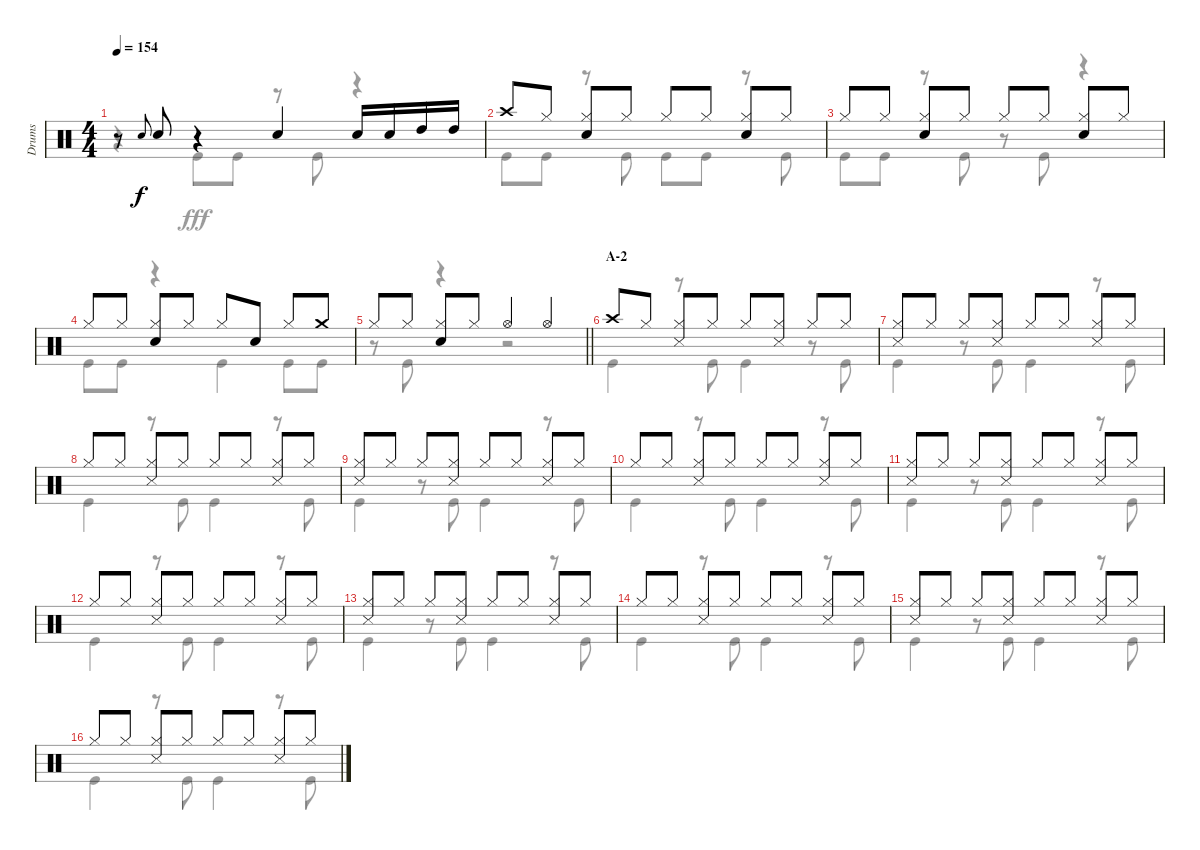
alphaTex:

\track ("Drums" "Drums") {instrument percussion}
\staff {score}
\articulation defaults
\voice
\ts (4 4)
\tempo 154
\clef neutral
\ks c
r.8{dy f} "Snare (hit) 2".8{gr onbeat} "Snare (hit) 2".8 r.4 "Snare (hit) 2".4 "Snare (hit) 2".16 "Snare (hit) 2".16 "High Tom (hit)".16 "High Tom (hit)".16 |
"Crash high (hit)".8 "Hi-Hat (closed)".8 ("Hi-Hat (closed)" "Snare (hit) 2").8 "Hi-Hat (closed)".8 "Hi-Hat (closed)".8 "Hi-Hat (closed)".8 ("Hi-Hat (closed)" "Snare (hit) 2").8 "Hi-Hat (closed)".8 |
"Hi-Hat (closed)".8 "Hi-Hat (closed)".8 ("Hi-Hat (closed)" "Snare (hit) 2").8 "Hi-Hat (closed)".8 "Hi-Hat (closed)".8 "Hi-Hat (closed)".8 ("Hi-Hat (closed)" "Snare (hit) 2").8 "Hi-Hat (closed)".8 |
"Hi-Hat (closed)".8 "Hi-Hat (closed)".8 ("Hi-Hat (closed)" "Snare (hit) 2").8 "Hi-Hat (closed)".8 "Hi-Hat (closed)".8 "Snare (hit) 2".8 "Hi-Hat (closed)".8 "Crash medium (hit)".8 |
\barLineRight lightlight "Hi-Hat (closed)".8 "Hi-Hat (closed)".8
("Hi-Hat (closed)" "Snare (hit) 2").8 "Hi-Hat (closed)".8 "Hi-Hat (open)".4 "Hi-Hat (open)".4 |
\section ("" "A-2")
"Crash high (hit)".8 "Hi-Hat (closed)".8 ("Hi-Hat (closed)" "Snare (side stick) 3").8 "Hi-Hat (closed)".8 "Hi-Hat (closed)".8 ("Hi-Hat (closed)" "Snare (side stick) 3").8 "Hi-Hat (closed)".8 "Hi-Hat (closed)".8 |
("Hi-Hat (closed)" "Snare (side stick) 3").8 "Hi-Hat (closed)".8 "Hi-Hat (closed)".8 ("Hi-Hat (closed)" "Snare (side stick) 3").8 "Hi-Hat (closed)".8 "Hi-Hat (closed)".8 ("Hi-Hat (closed)" "Snare (side stick) 3").8 "Hi-Hat (closed)".8 |
"Hi-Hat (closed)".8 "Hi-Hat (closed)".8 ("Hi-Hat (closed)" "Snare (side stick) 3").8 "Hi-Hat (closed)".8 "Hi-Hat (closed)".8 "Hi-Hat (closed)".8 ("Hi-Hat (closed)" "Snare (side stick) 3").8 "Hi-Hat (closed)".8 |
("Hi-Hat (closed)" "Snare (side stick) 3").8 "Hi-Hat (closed)".8 "Hi-Hat (closed)".8 ("Hi-Hat (closed)" "Snare (side stick) 3").8 "Hi-Hat (closed)".8 "Hi-Hat (closed)".8 ("Hi-Hat (closed)" "Snare (side stick) 3").8 "Hi-Hat (closed)".8 |
"Hi-Hat (closed)".8 "Hi-Hat (closed)".8 ("Hi-Hat (closed)" "Snare (side stick) 3").8 "Hi-Hat (closed)".8 "Hi-Hat (closed)".8 "Hi-Hat (closed)".8 ("Hi-Hat (closed)" "Snare (side stick) 3").8 "Hi-Hat (closed)".8 |
("Hi-Hat (closed)" "Snare (side stick) 3").8 "Hi-Hat (closed)".8 "Hi-Hat (closed)".8 ("Hi-Hat (closed)" "Snare (side stick) 3").8 "Hi-Hat (closed)".8 "Hi-Hat (closed)".8 ("Hi-Hat (closed)" "Snare (side stick) 3").8 "Hi-Hat (closed)".8 |
"Hi-Hat (closed)".8 "Hi-Hat (closed)".8 ("Hi-Hat (closed)" "Snare (side stick) 3").8 "Hi-Hat (closed)".8 "Hi-Hat (closed)".8 "Hi-Hat (closed)".8 ("Hi-Hat (closed)" "Snare (side stick) 3").8 "Hi-Hat (closed)".8 |
("Hi-Hat (closed)" "Snare (side stick) 3").8 "Hi-Hat (closed)".8 "Hi-Hat (closed)".8 ("Hi-Hat (closed)" "Snare (side stick) 3").8 "Hi-Hat (closed)".8 "Hi-Hat (closed)".8 ("Hi-Hat (closed)" "Snare (side stick) 3").8 "Hi-Hat (closed)".8 |
"Hi-Hat (closed)".8 "Hi-Hat (closed)".8 ("Hi-Hat (closed)" "Snare (side stick) 3").8 "Hi-Hat (closed)".8 "Hi-Hat (closed)".8 "Hi-Hat (closed)".8 ("Hi-Hat (closed)" "Snare (side stick) 3").8 "Hi-Hat (closed)".8 |
("Hi-Hat (closed)" "Snare (side stick) 3").8 "Hi-Hat (closed)".8 "Hi-Hat (closed)".8 ("Hi-Hat (closed)" "Snare (side stick) 3").8 "Hi-Hat (closed)".8 "Hi-Hat (closed)".8 ("Hi-Hat (closed)" "Snare (side stick) 3").8 "Hi-Hat (closed)".8 |
"Hi-Hat (closed)".8 "Hi-Hat (closed)".8 ("Hi-Hat (closed)" "Snare (side stick) 3").8 "Hi-Hat (closed)".8 "Hi-Hat (closed)".8 "Hi-Hat (closed)".8 ("Hi-Hat (closed)" "Snare (side stick) 3").8 "Hi-Hat (closed)".8
\voice
\clef neutral
\ottava regular
\simile none
\ks c
r.4{dy fff} "Kick (hit)".8 "Kick (hit)".8 r.8 "Kick (hit)".8 r.4 |
"Kick (hit)".8 "Kick (hit)".8 r.8 "Kick (hit)".8 "Kick (hit)".8 "Kick (hit)".8 r.8 "Kick (hit)".8 |
"Kick (hit)".8 "Kick (hit)".8 r.8 "Kick (hit)".8 r.8 "Kick (hit)".8 r.4 |
"Kick (hit)".8 "Kick (hit)".8 r.4 "Kick (hit)".4 "Kick (hit)".8 "Kick (hit)".8 |
\barLineRight lightlight
r.8 "Kick (hit)".8 r.4 r.2 |
"Kick (hit)".4 r.8 "Kick (hit)".8 "Kick (hit)".4 r.8 "Kick (hit)".8 |
"Kick (hit)".4 r.8 "Kick (hit)".8 "Kick (hit)".4 r.8 "Kick (hit)".8 |
"Kick (hit)".4 r.8 "Kick (hit)".8 "Kick (hit)".4 r.8 "Kick (hit)".8 |
"Kick (hit)".4 r.8 "Kick (hit)".8 "Kick (hit)".4 r.8 "Kick (hit)".8 |
"Kick (hit)".4 r.8 "Kick (hit)".8 "Kick (hit)".4 r.8 "Kick (hit)".8 |
"Kick (hit)".4 r.8 "Kick (hit)".8 "Kick (hit)".4 r.8 "Kick (hit)".8 |
"Kick (hit)".4 r.8 "Kick (hit)".8 "Kick (hit)".4 r.8 "Kick (hit)".8 |
"Kick (hit)".4 r.8 "Kick (hit)".8 "Kick (hit)".4 r.8 "Kick (hit)".8 |
"Kick (hit)".4 r.8 "Kick (hit)".8 "Kick (hit)".4 r.8 "Kick (hit)".8 |
"Kick (hit)".4 r.8 "Kick (hit)".8 "Kick (hit)".4 r.8 "Kick (hit)".8 |
"Kick (hit)".4 r.8 "Kick (hit)".8 "Kick (hit)".4 r.8 "Kick (hit)".8
